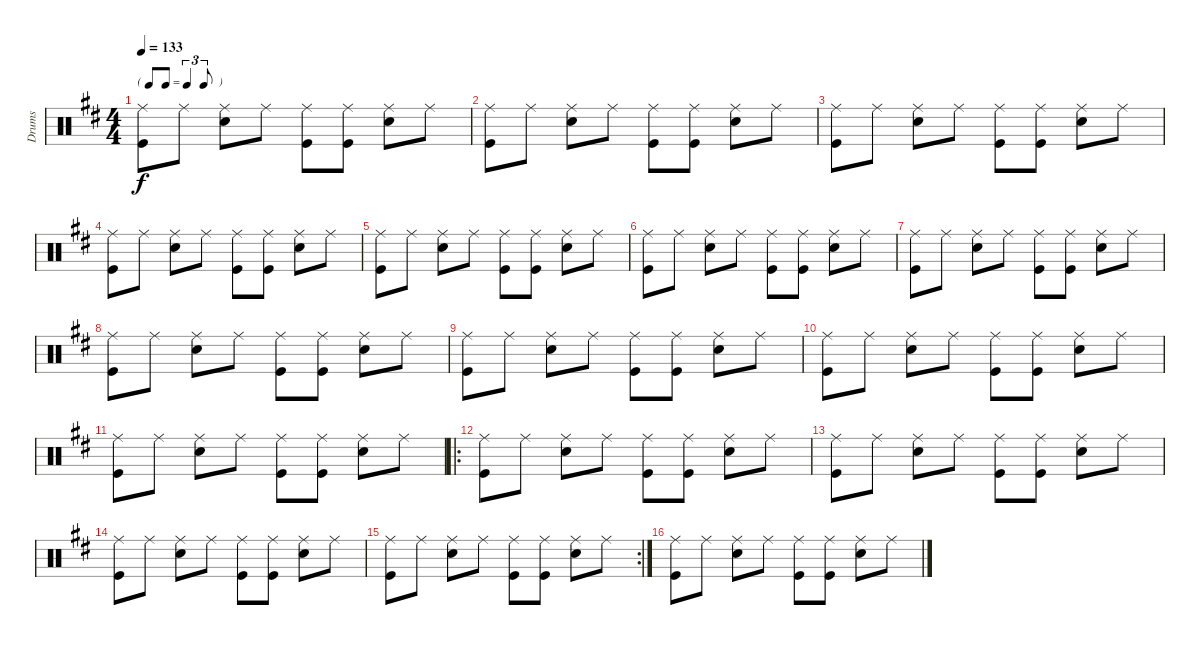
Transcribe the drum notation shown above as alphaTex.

\track ("Drums" "Drums") {instrument percussion}
\staff {score}
\articulation defaults
\ts (4 4)
\tf triplet8th
\tempo 133
\clef neutral
\ks d
("Ride (middle)" "Kick (hit)").8{dy f} "Ride (middle)".8 ("Ride (middle)" "Snare (hit) 2").8 "Ride (middle)".8 ("Ride (middle)" "Kick (hit)").8 ("Ride (middle)" "Kick (hit)").8 ("Ride (middle)" "Snare (hit) 2").8 "Ride (middle)".8 |
("Ride (middle)" "Kick (hit)").8 "Ride (middle)".8 ("Ride (middle)" "Snare (hit) 2").8 "Ride (middle)".8 ("Ride (middle)" "Kick (hit)").8 ("Ride (middle)" "Kick (hit)").8 ("Ride (middle)" "Snare (hit) 2").8 "Ride (middle)".8 |
("Ride (middle)" "Kick (hit)").8 "Ride (middle)".8 ("Ride (middle)" "Snare (hit) 2").8 "Ride (middle)".8 ("Ride (middle)" "Kick (hit)").8 ("Ride (middle)" "Kick (hit)").8 ("Ride (middle)" "Snare (hit) 2").8 "Ride (middle)".8 |
("Ride (middle)" "Kick (hit)").8 "Ride (middle)".8 ("Ride (middle)" "Snare (hit) 2").8 "Ride (middle)".8 ("Ride (middle)" "Kick (hit)").8 ("Ride (middle)" "Kick (hit)").8 ("Ride (middle)" "Snare (hit) 2").8 "Ride (middle)".8 |
("Ride (middle)" "Kick (hit)").8 "Ride (middle)".8 ("Ride (middle)" "Snare (hit) 2").8 "Ride (middle)".8 ("Ride (middle)" "Kick (hit)").8 ("Ride (middle)" "Kick (hit)").8 ("Ride (middle)" "Snare (hit) 2").8 "Ride (middle)".8 |
("Ride (middle)" "Kick (hit)").8 "Ride (middle)".8 ("Ride (middle)" "Snare (hit) 2").8 "Ride (middle)".8 ("Ride (middle)" "Kick (hit)").8 ("Ride (middle)" "Kick (hit)").8 ("Ride (middle)" "Snare (hit) 2").8 "Ride (middle)".8 |
("Ride (middle)" "Kick (hit)").8 "Ride (middle)".8 ("Ride (middle)" "Snare (hit) 2").8 "Ride (middle)".8 ("Ride (middle)" "Kick (hit)").8 ("Ride (middle)" "Kick (hit)").8 ("Ride (middle)" "Snare (hit) 2").8 "Ride (middle)".8 |
("Ride (middle)" "Kick (hit)").8 "Ride (middle)".8 ("Ride (middle)" "Snare (hit) 2").8 "Ride (middle)".8 ("Ride (middle)" "Kick (hit)").8 ("Ride (middle)" "Kick (hit)").8 ("Ride (middle)" "Snare (hit) 2").8 "Ride (middle)".8 |
("Ride (middle)" "Kick (hit)").8 "Ride (middle)".8 ("Ride (middle)" "Snare (hit) 2").8 "Ride (middle)".8 ("Ride (middle)" "Kick (hit)").8 ("Ride (middle)" "Kick (hit)").8 ("Ride (middle)" "Snare (hit) 2").8 "Ride (middle)".8 |
("Ride (middle)" "Kick (hit)").8 "Ride (middle)".8 ("Ride (middle)" "Snare (hit) 2").8 "Ride (middle)".8 ("Ride (middle)" "Kick (hit)").8 ("Ride (middle)" "Kick (hit)").8 ("Ride (middle)" "Snare (hit) 2").8 "Ride (middle)".8 |
("Ride (middle)" "Kick (hit)").8 "Ride (middle)".8 ("Ride (middle)" "Snare (hit) 2").8 "Ride (middle)".8 ("Ride (middle)" "Kick (hit)").8 ("Ride (middle)" "Kick (hit)").8 ("Ride (middle)" "Snare (hit) 2").8 "Ride (middle)".8 |
\ro
("Ride (middle)" "Kick (hit)").8 "Ride (middle)".8 ("Ride (middle)" "Snare (hit) 2").8 "Ride (middle)".8 ("Ride (middle)" "Kick (hit)").8 ("Ride (middle)" "Kick (hit)").8 ("Ride (middle)" "Snare (hit) 2").8 "Ride (middle)".8 |
("Ride (middle)" "Kick (hit)").8 "Ride (middle)".8 ("Ride (middle)" "Snare (hit) 2").8 "Ride (middle)".8 ("Ride (middle)" "Kick (hit)").8 ("Ride (middle)" "Kick (hit)").8 ("Ride (middle)" "Snare (hit) 2").8 "Ride (middle)".8 |
("Ride (middle)" "Kick (hit)").8 "Ride (middle)".8 ("Ride (middle)" "Snare (hit) 2").8 "Ride (middle)".8 ("Ride (middle)" "Kick (hit)").8 ("Ride (middle)" "Kick (hit)").8 ("Ride (middle)" "Snare (hit) 2").8 "Ride (middle)".8 |
\rc 2
("Ride (middle)" "Kick (hit)").8 "Ride (middle)".8 ("Ride (middle)" "Snare (hit) 2").8 "Ride (middle)".8 ("Ride (middle)" "Kick (hit)").8 ("Ride (middle)" "Kick (hit)").8 ("Ride (middle)" "Snare (hit) 2").8 "Ride (middle)".8 |
("Ride (middle)" "Kick (hit)").8{volume 14} "Ride (middle)".8 ("Ride (middle)" "Snare (hit) 2").8 "Ride (middle)".8 ("Ride (middle)" "Kick (hit)").8 ("Ride (middle)" "Kick (hit)").8 ("Ride (middle)" "Snare (hit) 2").8 "Ride (middle)".8
